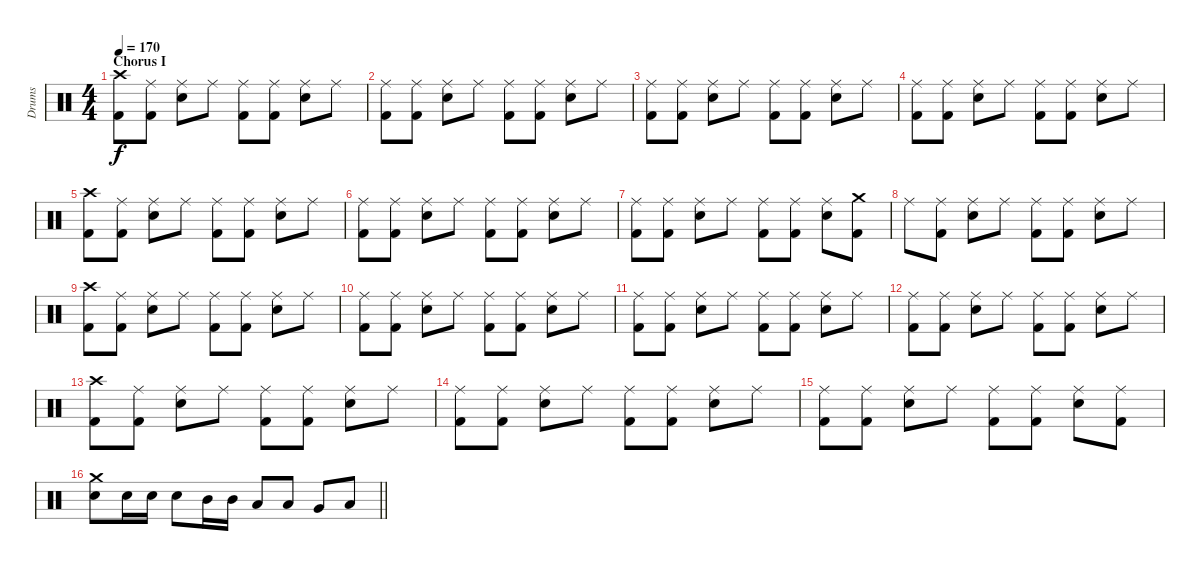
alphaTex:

\track ("Drums" "Drums") {instrument percussion}
\staff {score}
\articulation defaults
\ts (4 4)
\section ("" "Chorus I")
\tempo 170
\clef neutral
\ks c
("Crash high (hit)" "Kick (hit) 2").8{dy f} ("Ride (middle)" "Kick (hit) 2").8 ("Ride (middle)" "Electric Snare (hit)").8 "Ride (middle)".8 ("Ride (middle)" "Kick (hit) 2").8 ("Ride (middle)" "Kick (hit) 2").8 ("Ride (middle)" "Electric Snare (hit)").8 "Ride (middle)".8 |
("Ride (middle)" "Kick (hit) 2").8 ("Ride (middle)" "Kick (hit) 2").8 ("Ride (middle)" "Electric Snare (hit)").8 "Ride (middle)".8 ("Ride (middle)" "Kick (hit) 2").8 ("Ride (middle)" "Kick (hit) 2").8 ("Ride (middle)" "Electric Snare (hit)").8 "Ride (middle)".8 |
("Ride (middle)" "Kick (hit) 2").8 ("Ride (middle)" "Kick (hit) 2").8 ("Ride (middle)" "Electric Snare (hit)").8 "Ride (middle)".8 ("Ride (middle)" "Kick (hit) 2").8 ("Ride (middle)" "Kick (hit) 2").8 ("Ride (middle)" "Electric Snare (hit)").8 "Ride (middle)".8 |
("Ride (middle)" "Kick (hit) 2").8 ("Ride (middle)" "Kick (hit) 2").8 ("Ride (middle)" "Electric Snare (hit)").8 "Ride (middle)".8 ("Ride (middle)" "Kick (hit) 2").8 ("Ride (middle)" "Kick (hit) 2").8 ("Ride (middle)" "Electric Snare (hit)").8 "Ride (middle)".8 |
("Crash high (hit)" "Kick (hit) 2").8 ("Ride (middle)" "Kick (hit) 2").8 ("Ride (middle)" "Electric Snare (hit)").8 "Ride (middle)".8 ("Ride (middle)" "Kick (hit) 2").8 ("Ride (middle)" "Kick (hit) 2").8 ("Ride (middle)" "Electric Snare (hit)").8 "Ride (middle)".8 |
("Ride (middle)" "Kick (hit) 2").8 ("Ride (middle)" "Kick (hit) 2").8 ("Ride (middle)" "Electric Snare (hit)").8 "Ride (middle)".8 ("Ride (middle)" "Kick (hit) 2").8 ("Ride (middle)" "Kick (hit) 2").8 ("Ride (middle)" "Electric Snare (hit)").8 "Ride (middle)".8 |
("Ride (middle)" "Kick (hit) 2").8 ("Ride (middle)" "Kick (hit) 2").8 ("Ride (middle)" "Electric Snare (hit)").8 "Ride (middle)".8 ("Ride (middle)" "Kick (hit) 2").8 ("Ride (middle)" "Kick (hit) 2").8 ("Ride (middle)" "Electric Snare (hit)").8 ("Crash medium (hit)" "Kick (hit) 2").8 |
"Ride (middle)".8 ("Ride (middle)" "Kick (hit) 2").8 ("Ride (middle)" "Electric Snare (hit)").8 "Ride (middle)".8 ("Ride (middle)" "Kick (hit) 2").8 ("Ride (middle)" "Kick (hit) 2").8 ("Ride (middle)" "Electric Snare (hit)").8 "Ride (middle)".8 |
("Crash high (hit)" "Kick (hit) 2").8 ("Ride (middle)" "Kick (hit) 2").8 ("Ride (middle)" "Electric Snare (hit)").8 "Ride (middle)".8 ("Ride (middle)" "Kick (hit) 2").8 ("Ride (middle)" "Kick (hit) 2").8 ("Ride (middle)" "Electric Snare (hit)").8 "Ride (middle)".8 |
("Ride (middle)" "Kick (hit) 2").8 ("Ride (middle)" "Kick (hit) 2").8 ("Ride (middle)" "Electric Snare (hit)").8 "Ride (middle)".8 ("Ride (middle)" "Kick (hit) 2").8 ("Ride (middle)" "Kick (hit) 2").8 ("Ride (middle)" "Electric Snare (hit)").8 "Ride (middle)".8 |
("Ride (middle)" "Kick (hit) 2").8 ("Ride (middle)" "Kick (hit) 2").8 ("Ride (middle)" "Electric Snare (hit)").8 "Ride (middle)".8 ("Ride (middle)" "Kick (hit) 2").8 ("Ride (middle)" "Kick (hit) 2").8 ("Ride (middle)" "Electric Snare (hit)").8 "Ride (middle)".8 |
("Ride (middle)" "Kick (hit) 2").8 ("Ride (middle)" "Kick (hit) 2").8 ("Ride (middle)" "Electric Snare (hit)").8 "Ride (middle)".8 ("Ride (middle)" "Kick (hit) 2").8 ("Ride (middle)" "Kick (hit) 2").8 ("Ride (middle)" "Electric Snare (hit)").8 "Ride (middle)".8 |
("Crash high (hit)" "Kick (hit) 2").8 ("Ride (middle)" "Kick (hit) 2").8 ("Ride (middle)" "Electric Snare (hit)").8 "Ride (middle)".8 ("Ride (middle)" "Kick (hit) 2").8 ("Ride (middle)" "Kick (hit) 2").8 ("Ride (middle)" "Electric Snare (hit)").8 "Ride (middle)".8 |
("Ride (middle)" "Kick (hit) 2").8 ("Ride (middle)" "Kick (hit) 2").8 ("Ride (middle)" "Electric Snare (hit)").8 "Ride (middle)".8 ("Ride (middle)" "Kick (hit) 2").8 ("Ride (middle)" "Kick (hit) 2").8 ("Ride (middle)" "Electric Snare (hit)").8 "Ride (middle)".8 |
("Ride (middle)" "Kick (hit) 2").8 ("Ride (middle)" "Kick (hit) 2").8 ("Ride (middle)" "Electric Snare (hit)").8 "Ride (middle)".8 ("Ride (middle)" "Kick (hit) 2").8 ("Ride (middle)" "Kick (hit) 2").8 ("Ride (middle)" "Electric Snare (hit)").8 ("Ride (middle)" "Kick (hit) 2").8 |
\barLineRight lightlight
("Crash medium (hit)" "Electric Snare (hit)").8 "Electric Snare (hit)".16 "Electric Snare (hit)".16 "Electric Snare (hit)".8 "Mid Tom (hit)".16 "Mid Tom (hit)".16 "Low Tom (hit)".8 "Low Tom (hit)".8 "Very Low Tom (hit)".8 "Low Floor Tom (hit)".8
